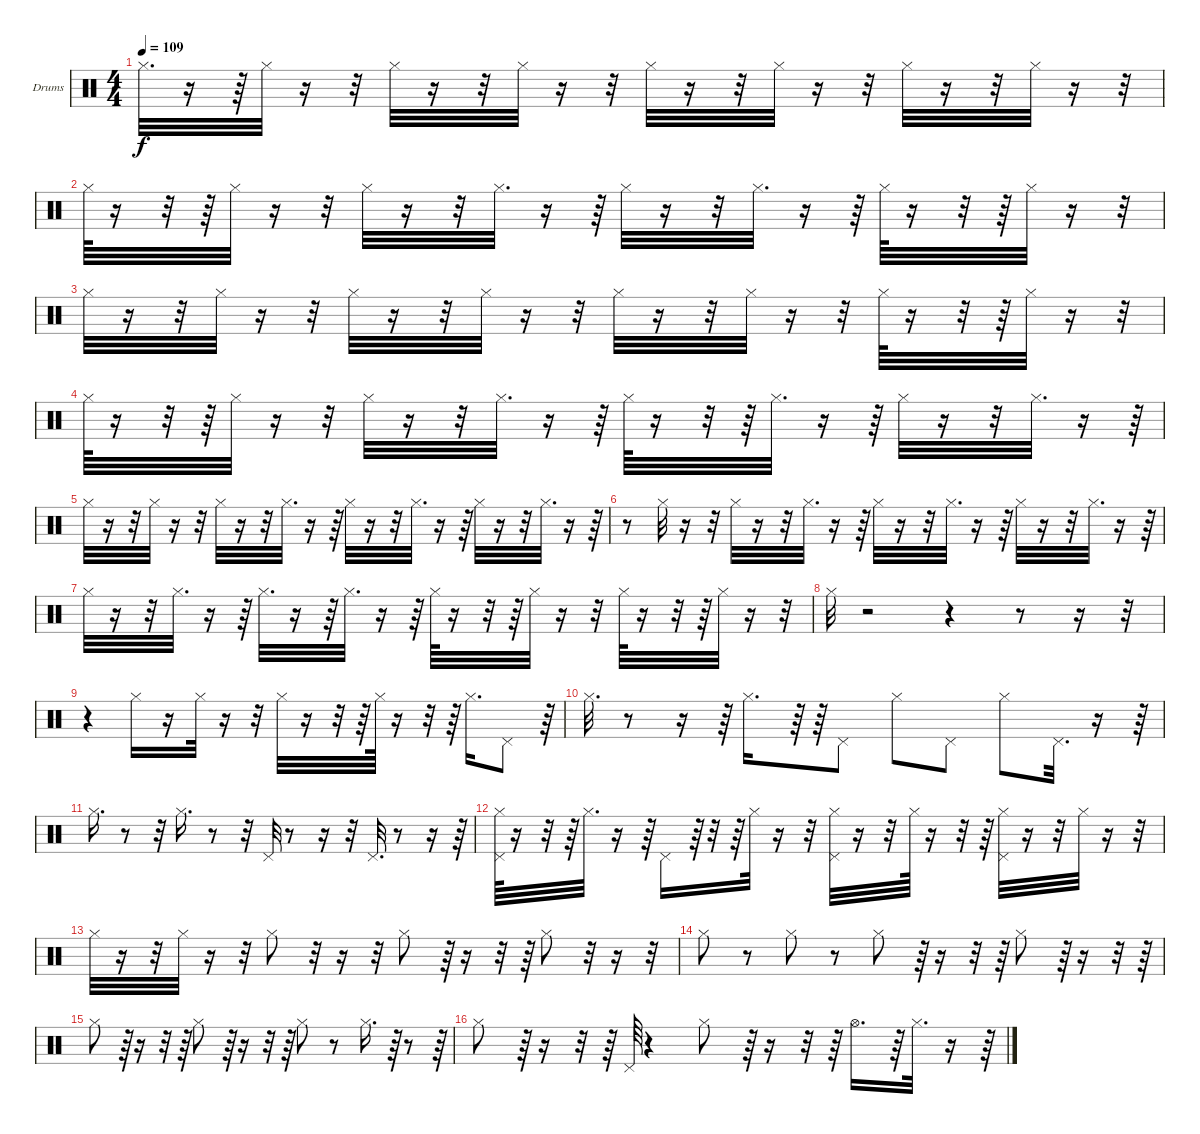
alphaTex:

\bracketExtendMode groupsimilarinstruments
\firstSystemTrackNameOrientation horizontal
\otherSystemsTrackNameOrientation horizontal
\track ("Drumkit" "Drums") {instrument percussion}
\staff {score}
\articulation defaults
\ts (4 4)
\tempo 109
\clef neutral
\ks aminor "Hi-Hat (closed)".32{d dy f}
r.16 r.64 "Hi-Hat (closed)".32 r.16 r.32 "Hi-Hat (closed)".32 r.16 r.32 "Hi-Hat (closed)".32 r.16 r.32 "Hi-Hat (closed)".32 r.16 r.32 "Hi-Hat (closed)".32 r.16 r.32 "Hi-Hat (closed)".32 r.16 r.32 "Hi-Hat (closed)".32 r.16 r.32 |
\ks c "Hi-Hat (closed)".64
r.16 r.32 r.64 "Hi-Hat (closed)".32 r.16 r.32 "Hi-Hat (closed)".32 r.16 r.32 "Hi-Hat (closed)".32{d} r.16 r.64 "Hi-Hat (closed)".32 r.16 r.32 "Hi-Hat (closed)".32{d} r.16 r.64 "Hi-Hat (closed)".64 r.16 r.32 r.64 "Hi-Hat (closed)".32 r.16 r.32 |
"Hi-Hat (closed)".32 r.16 r.32 "Hi-Hat (closed)".32 r.16 r.32 "Hi-Hat (closed)".32 r.16 r.32 "Hi-Hat (closed)".32 r.16 r.32 "Hi-Hat (closed)".32 r.16 r.32 "Hi-Hat (closed)".32 r.16 r.32 "Hi-Hat (closed)".64 r.16 r.32 r.64 "Hi-Hat (closed)".32 r.16 r.32 |
"Hi-Hat (closed)".64 r.16 r.32 r.64 "Hi-Hat (closed)".32 r.16 r.32 "Hi-Hat (closed)".32 r.16 r.32 "Hi-Hat (closed)".32{d} r.16 r.64 "Hi-Hat (closed)".64 r.16 r.32 r.64 "Hi-Hat (closed)".32{d} r.16 r.64 "Hi-Hat (closed)".32 r.16 r.32 "Hi-Hat (closed)".32{d} r.16 r.64 |
"Hi-Hat (closed)".32 r.16 r.32 "Hi-Hat (closed)".32 r.16 r.32 "Hi-Hat (closed)".32 r.16 r.32 "Hi-Hat (closed)".32{d} r.16 r.64 "Hi-Hat (closed)".32 r.16 r.32 "Hi-Hat (closed)".32{d} r.16 r.64 "Hi-Hat (closed)".32 r.16 r.32 "Hi-Hat (closed)".32{d} r.16 r.64 |
r.8 "Hi-Hat (closed)".32 r.16 r.32 "Hi-Hat (closed)".32 r.16 r.32 "Hi-Hat (closed)".32{d} r.16 r.64 "Hi-Hat (closed)".32 r.16 r.32 "Hi-Hat (closed)".32{d} r.16 r.64 "Hi-Hat (closed)".32 r.16 r.32 "Hi-Hat (closed)".32{d} r.16 r.64 |
"Hi-Hat (closed)".32 r.16 r.32 "Hi-Hat (closed)".32{d} r.16 r.64 "Hi-Hat (closed)".32{d} r.16 r.64 "Hi-Hat (closed)".32{d} r.16 r.64 "Hi-Hat (closed)".64 r.16 r.32 r.64 "Hi-Hat (closed)".32 r.16 r.32 "Hi-Hat (closed)".64 r.16 r.32 r.64 "Hi-Hat (closed)".32 r.16 r.32 |
"Hi-Hat (closed)".32 r.2 r.4 r.8 r.16 r.32 |
r.4 "Hi-Hat (closed)".16 r.16 "Hi-Hat (closed)".32 r.16 r.32 "Hi-Hat (closed)".32 r.16 r.32 r.64 "Hi-Hat (closed)".64 r.16 r.32 r.64 "Hi-Hat (closed)".16{d} "Pedal Hi-Hat (hit)".8 r.64 |
"Hi-Hat (closed)".32{d} r.8 r.16 r.64 "Hi-Hat (closed)".16{d} r.64 r.64 "Pedal Hi-Hat (hit)".8 "Hi-Hat (closed)".8 "Pedal Hi-Hat (hit)".8 "Hi-Hat (closed)".8 "Pedal Hi-Hat (hit)".32{d} r.16 r.64 |
"Hi-Hat (closed)".16{d} r.8 r.32 "Hi-Hat (closed)".16{d} r.8 r.32 "Pedal Hi-Hat (hit)".32 r.8 r.16 r.32 "Pedal Hi-Hat (hit)".32{d} r.8 r.16 r.64 |
("Hi-Hat (closed)" "Pedal Hi-Hat (hit)").64 r.16 r.32 r.64 "Hi-Hat (closed)".32{d} r.16 r.64 "Pedal Hi-Hat (hit)".16 r.64 r.32 r.64 "Hi-Hat (closed)".32 r.16 r.32 ("Hi-Hat (closed)" "Pedal Hi-Hat (hit)").32 r.16 r.32 "Hi-Hat (closed)".64 r.16 r.32 r.64 ("Hi-Hat (closed)" "Pedal Hi-Hat (hit)").32 r.16 r.32 "Hi-Hat (closed)".32 r.16 r.32 |
"Hi-Hat (closed)".32 r.16 r.32 "Hi-Hat (closed)".32 r.16 r.32 "Hi-Hat (closed)".8 r.32 r.16 r.32 "Hi-Hat (closed)".8 r.64 r.16 r.32 r.64 "Hi-Hat (closed)".8 r.32 r.16 r.32 |
"Hi-Hat (closed)".8 r.8 "Hi-Hat (closed)".8 r.8 "Hi-Hat (closed)".8 r.64 r.16 r.32 r.64 "Hi-Hat (closed)".8 r.64 r.16 r.32 r.64 |
"Hi-Hat (closed)".8 r.64 r.16 r.32 r.64 "Hi-Hat (closed)".8 r.64 r.16 r.32 r.64 "Hi-Hat (closed)".8 r.8 "Hi-Hat (closed)".16{d} r.64 r.8 r.64 |
"Hi-Hat (closed)".8 r.64 r.16 r.32 r.64 "Pedal Hi-Hat (hit)".64 r.4 "Hi-Hat (closed)".8 r.64 r.16 r.32 r.64 "Hi-Hat (open)".16{d} r.64 "Hi-Hat (closed)".32{d} r.16 r.64
